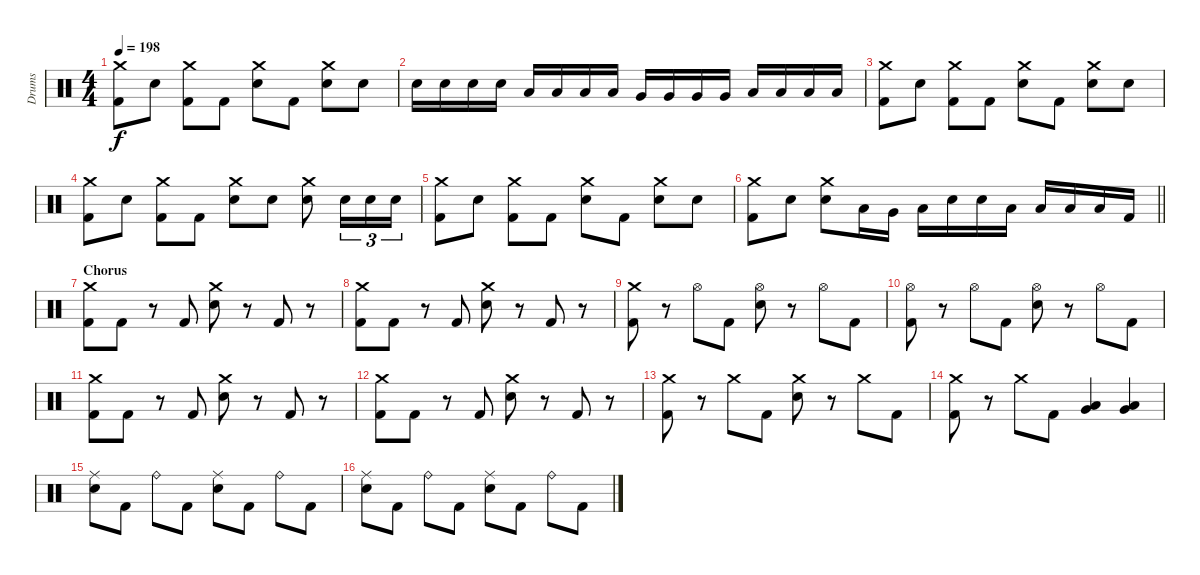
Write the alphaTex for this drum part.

\track ("Drums" "Drums") {instrument percussion}
\staff {score}
\articulation defaults
\ts (4 4)
\tempo 198
\clef neutral
\ks c
("Crash medium (hit)" "Kick (hit) 2").8{dy f} "Electric Snare (hit)".8 ("Crash medium (hit)" "Kick (hit) 2").8 "Kick (hit) 2".8 ("Crash medium (hit)" "Electric Snare (hit)").8 "Kick (hit) 2".8 ("Crash medium (hit)" "Electric Snare (hit)").8 "Electric Snare (hit)".8 |
"Electric Snare (hit)".16 "Electric Snare (hit)".16 "Electric Snare (hit)".16 "Electric Snare (hit)".16 "Low Tom (hit)".16 "Low Tom (hit)".16 "Low Tom (hit)".16 "Low Tom (hit)".16 "Very Low Tom (hit)".16 "Very Low Tom (hit)".16 "Very Low Tom (hit)".16 "Very Low Tom (hit)".16 "Low Floor Tom (hit)".16 "Low Floor Tom (hit)".16 "Low Floor Tom (hit)".16 "Low Floor Tom (hit)".16 |
("Crash medium (hit)" "Kick (hit) 2").8 "Electric Snare (hit)".8 ("Crash medium (hit)" "Kick (hit) 2").8 "Kick (hit) 2".8 ("Crash medium (hit)" "Electric Snare (hit)").8 "Kick (hit) 2".8 ("Crash medium (hit)" "Electric Snare (hit)").8 "Electric Snare (hit)".8 |
("Crash medium (hit)" "Kick (hit) 2").8 "Electric Snare (hit)".8 ("Crash medium (hit)" "Kick (hit) 2").8 "Kick (hit) 2".8 ("Crash medium (hit)" "Electric Snare (hit)").8 "Electric Snare (hit)".8 ("Crash medium (hit)" "Electric Snare (hit)").8 "Electric Snare (hit)".16{tu (3 2)} "Electric Snare (hit)".16{tu (3 2)} "Electric Snare (hit)".16{tu (3 2)} |
("Crash medium (hit)" "Kick (hit) 2").8 "Electric Snare (hit)".8 ("Crash medium (hit)" "Kick (hit) 2").8 "Kick (hit) 2".8 ("Crash medium (hit)" "Electric Snare (hit)").8 "Kick (hit) 2".8 ("Crash medium (hit)" "Electric Snare (hit)").8 "Electric Snare (hit)".8 |
\barLineRight lightlight
("Crash medium (hit)" "Kick (hit) 2").8 "Electric Snare (hit)".8 ("Crash medium (hit)" "Electric Snare (hit)").8 "Low Tom (hit)".16 "Very Low Tom (hit)".16 "Low Floor Tom (hit)".16 "Electric Snare (hit)".16 "Electric Snare (hit)".16 "Low Tom (hit)".16 "Low Tom (hit)".16 "Low Floor Tom (hit)".16 "Low Floor Tom (hit)".16 "Kick (hit) 2".16 |
\section ("" "Chorus")
("Crash medium (hit)" "Kick (hit) 2").8 "Kick (hit) 2".8 r.8 "Kick (hit) 2".8 ("Crash medium (hit)" "Electric Snare (hit)").8 r.8 "Kick (hit) 2".8 r.8 |
("Crash medium (hit)" "Kick (hit) 2").8 "Kick (hit) 2".8 r.8 "Kick (hit) 2".8 ("Crash medium (hit)" "Electric Snare (hit)").8 r.8 "Kick (hit) 2".8 r.8 |
("Crash medium (hit)" "Kick (hit) 2").8 r.8 "Hi-Hat (open)".8 "Kick (hit) 2".8 ("Hi-Hat (open)" "Electric Snare (hit)").8 r.8 "Hi-Hat (open)".8 "Kick (hit) 2".8 |
("Hi-Hat (open)" "Kick (hit) 2").8 r.8 "Hi-Hat (open)".8 "Kick (hit) 2".8 ("Hi-Hat (open)" "Electric Snare (hit)").8 r.8 "Hi-Hat (open)".8 "Kick (hit) 2".8 |
("Crash medium (hit)" "Kick (hit) 2").8 "Kick (hit) 2".8 r.8 "Kick (hit) 2".8 ("Crash medium (hit)" "Electric Snare (hit)").8 r.8 "Kick (hit) 2".8 r.8 |
("Crash medium (hit)" "Kick (hit) 2").8 "Kick (hit) 2".8 r.8 "Kick (hit) 2".8 ("Crash medium (hit)" "Electric Snare (hit)").8 r.8 "Kick (hit) 2".8 r.8 |
("Crash medium (hit)" "Kick (hit) 2").8 r.8 "Crash medium (hit)".8 "Kick (hit) 2".8 ("Crash medium (hit)" "Electric Snare (hit)").8 r.8 "Crash medium (hit)".8 "Kick (hit) 2".8 |
("Crash medium (hit)" "Kick (hit) 2").8 r.8 "Crash medium (hit)".8 "Kick (hit) 2".8 ("Low Tom (hit)" "Very Low Tom (hit)").4 ("Very Low Tom (hit)" "Low Floor Tom (hit)").4 |
("Ride (middle)" "Electric Snare (hit)").8 "Kick (hit) 2".8 "Ride (bell)".8 "Kick (hit) 2".8 ("Ride (middle)" "Electric Snare (hit)").8 "Kick (hit) 2".8 "Ride (bell)".8 "Kick (hit) 2".8 |
("Ride (middle)" "Electric Snare (hit)").8 "Kick (hit) 2".8 "Ride (bell)".8 "Kick (hit) 2".8 ("Ride (middle)" "Electric Snare (hit)").8 "Kick (hit) 2".8 "Ride (bell)".8 "Kick (hit) 2".8
